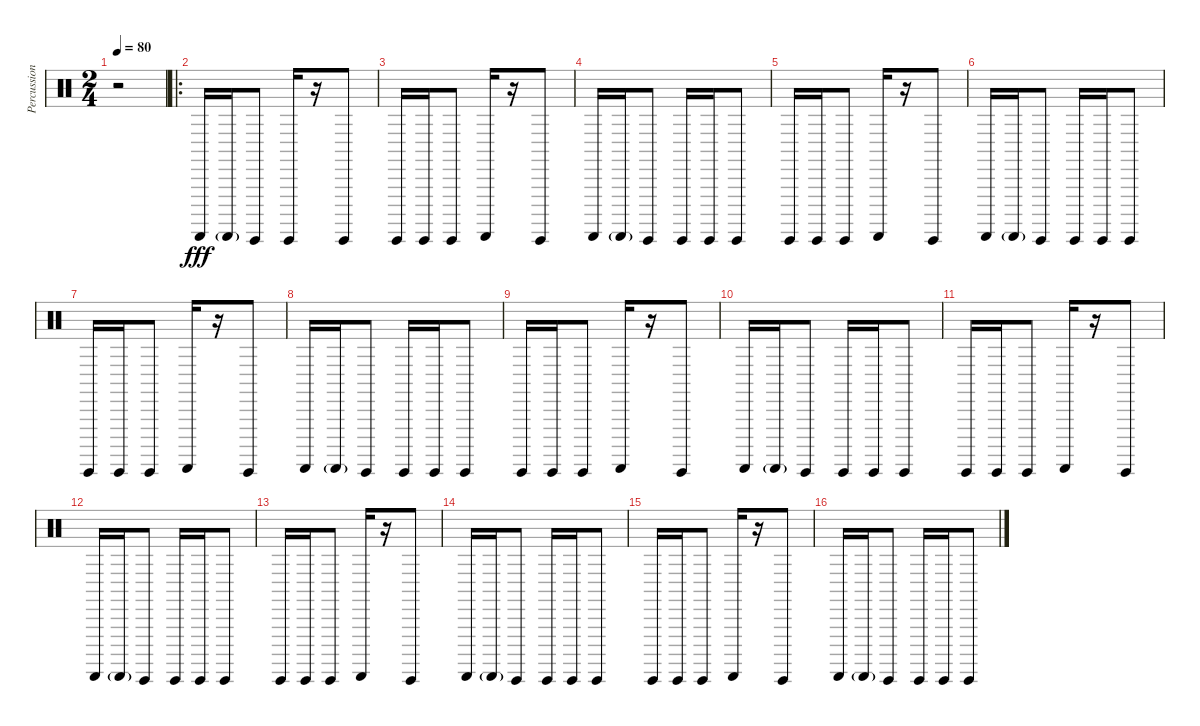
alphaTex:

\track ("Percussions" "Percussion") {instrument percussion}
\staff {score}
\articulation defaults
\ts (2 4)
\tempo 80
\clef neutral
\ks c
r.2{dy fff} |
\ro "Guiro (scrap-return)".16 "Guiro (scrap-return)"{g}.16 "Guiro (hit)".8 "Guiro (hit)".16
r.16 "Guiro (hit)".8 |
"Guiro (hit)".16 "Guiro (hit)".16 "Guiro (hit)".8 "Guiro (scrap-return)".16 r.16 "Guiro (hit)".8 |
"Guiro (scrap-return)".16 "Guiro (scrap-return)"{g}.16 "Guiro (hit)".8 "Guiro (hit)".16 "Guiro (hit)".16 "Guiro (hit)".8 |
"Guiro (hit)".16 "Guiro (hit)".16 "Guiro (hit)".8 "Guiro (scrap-return)".16 r.16 "Guiro (hit)".8 |
"Guiro (scrap-return)".16 "Guiro (scrap-return)"{g}.16 "Guiro (hit)".8 "Guiro (hit)".16 "Guiro (hit)".16 "Guiro (hit)".8 |
"Guiro (hit)".16 "Guiro (hit)".16 "Guiro (hit)".8 "Guiro (scrap-return)".16 r.16 "Guiro (hit)".8 |
"Guiro (scrap-return)".16 "Guiro (scrap-return)"{g}.16 "Guiro (hit)".8 "Guiro (hit)".16 "Guiro (hit)".16 "Guiro (hit)".8 |
"Guiro (hit)".16 "Guiro (hit)".16 "Guiro (hit)".8 "Guiro (scrap-return)".16 r.16 "Guiro (hit)".8 |
"Guiro (scrap-return)".16 "Guiro (scrap-return)"{g}.16 "Guiro (hit)".8 "Guiro (hit)".16 "Guiro (hit)".16 "Guiro (hit)".8 |
"Guiro (hit)".16 "Guiro (hit)".16 "Guiro (hit)".8 "Guiro (scrap-return)".16 r.16 "Guiro (hit)".8 |
"Guiro (scrap-return)".16 "Guiro (scrap-return)"{g}.16 "Guiro (hit)".8 "Guiro (hit)".16 "Guiro (hit)".16 "Guiro (hit)".8 |
"Guiro (hit)".16 "Guiro (hit)".16 "Guiro (hit)".8 "Guiro (scrap-return)".16 r.16 "Guiro (hit)".8 |
"Guiro (scrap-return)".16 "Guiro (scrap-return)"{g}.16 "Guiro (hit)".8 "Guiro (hit)".16 "Guiro (hit)".16 "Guiro (hit)".8 |
"Guiro (hit)".16 "Guiro (hit)".16 "Guiro (hit)".8 "Guiro (scrap-return)".16 r.16 "Guiro (hit)".8 |
"Guiro (scrap-return)".16 "Guiro (scrap-return)"{g}.16 "Guiro (hit)".8 "Guiro (hit)".16 "Guiro (hit)".16 "Guiro (hit)".8
